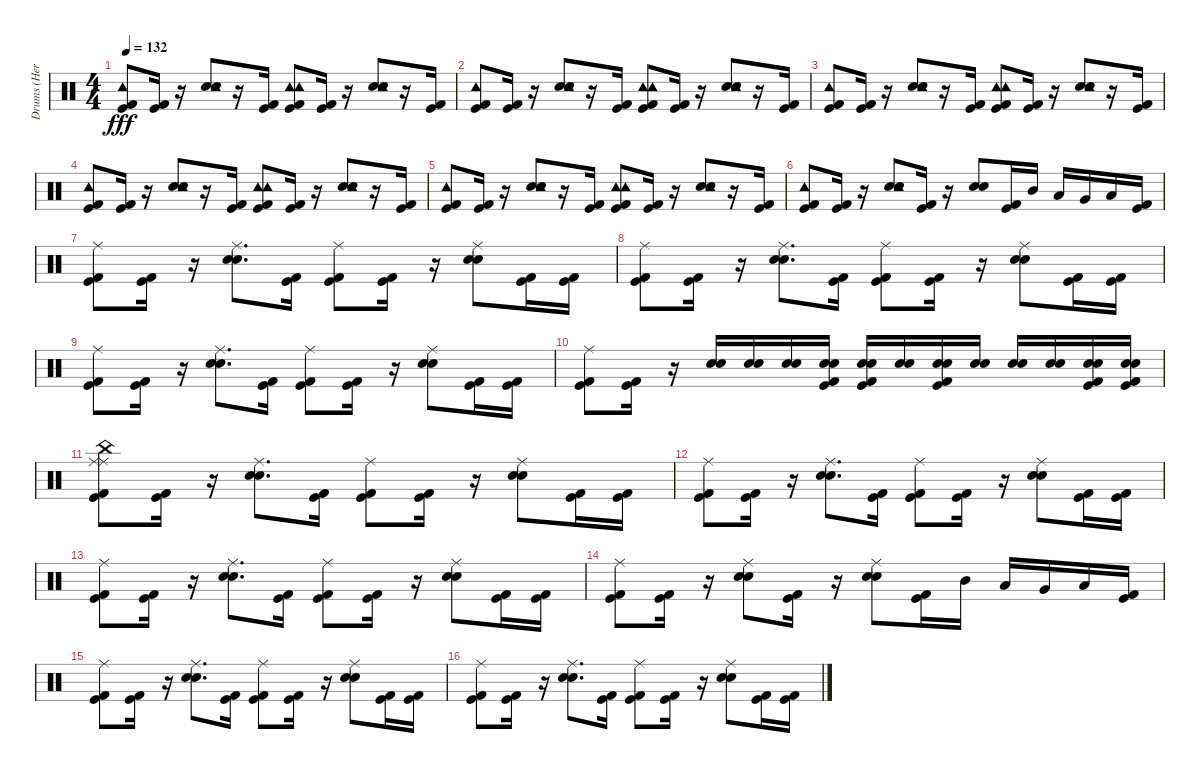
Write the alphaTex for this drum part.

\track ("Drums (Herb Alexander)" "Drums (Her") {instrument percussion}
\staff {score}
\articulation defaults
\ts (4 4)
\tempo 132
\clef neutral
\ks c
("Tambourine (hit)" "Kick (hit)" "Kick (hit) 2").8{dy fff} ("Kick (hit)" "Kick (hit) 2").16 r.16 ("Snare (hit) 2" "Hand Clap (hit)" "Tambourine (hit)").8 r.16 ("Kick (hit)" "Kick (hit) 2").16 ("Tambourine (hit)" "Kick (hit)" "Kick (hit) 2" "Tambourine (hit)").8 ("Kick (hit)" "Kick (hit) 2").16 r.16 ("Snare (hit) 2" "Hand Clap (hit)" "Tambourine (hit)").8 r.16 ("Kick (hit)" "Kick (hit) 2").16 |
("Tambourine (hit)" "Kick (hit)" "Kick (hit) 2").8 ("Kick (hit)" "Kick (hit) 2").16 r.16 ("Snare (hit) 2" "Hand Clap (hit)" "Tambourine (hit)").8 r.16 ("Kick (hit)" "Kick (hit) 2").16 ("Tambourine (hit)" "Kick (hit)" "Kick (hit) 2" "Tambourine (hit)").8 ("Kick (hit)" "Kick (hit) 2").16 r.16 ("Snare (hit) 2" "Hand Clap (hit)" "Tambourine (hit)").8 r.16 ("Kick (hit)" "Kick (hit) 2").16 |
("Tambourine (hit)" "Kick (hit)" "Kick (hit) 2").8 ("Kick (hit)" "Kick (hit) 2").16 r.16 ("Snare (hit) 2" "Hand Clap (hit)" "Tambourine (hit)").8 r.16 ("Kick (hit)" "Kick (hit) 2").16 ("Tambourine (hit)" "Kick (hit)" "Kick (hit) 2" "Tambourine (hit)").8 ("Kick (hit)" "Kick (hit) 2").16 r.16 ("Snare (hit) 2" "Hand Clap (hit)" "Tambourine (hit)").8 r.16 ("Kick (hit)" "Kick (hit) 2").16 |
("Tambourine (hit)" "Kick (hit)" "Kick (hit) 2").8 ("Kick (hit)" "Kick (hit) 2").16 r.16 ("Snare (hit) 2" "Hand Clap (hit)" "Tambourine (hit)").8 r.16 ("Kick (hit)" "Kick (hit) 2").16 ("Tambourine (hit)" "Kick (hit)" "Kick (hit) 2" "Tambourine (hit)").8 ("Kick (hit)" "Kick (hit) 2").16 r.16 ("Snare (hit) 2" "Hand Clap (hit)" "Tambourine (hit)").8 r.16 ("Kick (hit)" "Kick (hit) 2").16 |
("Tambourine (hit)" "Kick (hit)" "Kick (hit) 2").8 ("Kick (hit)" "Kick (hit) 2").16 r.16 ("Snare (hit) 2" "Hand Clap (hit)" "Tambourine (hit)").8 r.16 ("Kick (hit)" "Kick (hit) 2").16 ("Tambourine (hit)" "Kick (hit)" "Kick (hit) 2" "Tambourine (hit)").8 ("Kick (hit)" "Kick (hit) 2").16 r.16 ("Snare (hit) 2" "Hand Clap (hit)" "Tambourine (hit)").8 r.16 ("Kick (hit)" "Kick (hit) 2").16 |
("Tambourine (hit)" "Kick (hit)" "Kick (hit) 2").8 ("Kick (hit)" "Kick (hit) 2").16 r.16 ("Snare (hit) 2" "Hand Clap (hit)" "Tambourine (hit)").8 ("Kick (hit)" "Kick (hit) 2").16 r.16 ("Snare (hit) 2" "Hand Clap (hit)").8 ("Kick (hit)" "Kick (hit) 2").16 "Mid Tom (hit)".16 "Low Tom (hit)".16 "Very Low Tom (hit)".16 "Low Floor Tom (hit)".16 ("Kick (hit) 2" "Kick (hit)").16 |
("Ride (middle)" "Kick (hit)" "Kick (hit) 2").8 ("Kick (hit)" "Kick (hit) 2").16 r.16 ("Ride (middle)" "Snare (hit) 2" "Hand Clap (hit)").8{d} ("Kick (hit)" "Kick (hit) 2").16 ("Ride (middle)" "Kick (hit)" "Kick (hit) 2").8 ("Kick (hit)" "Kick (hit) 2").16 r.16 ("Ride (middle)" "Snare (hit) 2" "Hand Clap (hit)").8 ("Kick (hit)" "Kick (hit) 2").16 ("Kick (hit)" "Kick (hit) 2").16 |
("Ride (middle)" "Kick (hit)" "Kick (hit) 2").8 ("Kick (hit)" "Kick (hit) 2").16 r.16 ("Ride (middle)" "Snare (hit) 2" "Hand Clap (hit)").8{d} ("Kick (hit)" "Kick (hit) 2").16 ("Ride (middle)" "Kick (hit)" "Kick (hit) 2").8 ("Kick (hit)" "Kick (hit) 2").16 r.16 ("Ride (middle)" "Snare (hit) 2" "Hand Clap (hit)").8 ("Kick (hit)" "Kick (hit) 2").16 ("Kick (hit)" "Kick (hit) 2").16 |
("Ride (middle)" "Kick (hit)" "Kick (hit) 2").8 ("Kick (hit)" "Kick (hit) 2").16 r.16 ("Ride (middle)" "Snare (hit) 2" "Hand Clap (hit)").8{d} ("Kick (hit)" "Kick (hit) 2").16 ("Ride (middle)" "Kick (hit)" "Kick (hit) 2").8 ("Kick (hit)" "Kick (hit) 2").16 r.16 ("Ride (middle)" "Snare (hit) 2" "Hand Clap (hit)").8 ("Kick (hit)" "Kick (hit) 2").16 ("Kick (hit)" "Kick (hit) 2").16 |
("Ride (middle)" "Kick (hit)" "Kick (hit) 2").8 ("Kick (hit)" "Kick (hit) 2").16 r.16 ("Hand Clap (hit)" "Snare (hit) 2").16 ("Hand Clap (hit)" "Snare (hit) 2").16 ("Hand Clap (hit)" "Snare (hit) 2").16 ("Hand Clap (hit)" "Snare (hit) 2" "Kick (hit)" "Kick (hit) 2").16 ("Hand Clap (hit)" "Snare (hit) 2" "Kick (hit)" "Kick (hit) 2").16 ("Hand Clap (hit)" "Snare (hit) 2").16 ("Hand Clap (hit)" "Snare (hit) 2" "Kick (hit)" "Kick (hit) 2").16 ("Hand Clap (hit)" "Snare (hit) 2").16 ("Hand Clap (hit)" "Snare (hit) 2").16 ("Hand Clap (hit)" "Snare (hit) 2").16 ("Hand Clap (hit)" "Snare (hit) 2" "Kick (hit)" "Kick (hit) 2").16 ("Hand Clap (hit)" "Snare (hit) 2" "Kick (hit)" "Kick (hit) 2").16 |
("Ride (middle)" "China (hit)" "Ride (middle)" "Kick (hit)" "Kick (hit) 2").8 ("Kick (hit)" "Kick (hit) 2").16 r.16 ("Ride (middle)" "Snare (hit) 2" "Hand Clap (hit)").8{d} ("Kick (hit)" "Kick (hit) 2").16 ("Ride (middle)" "Kick (hit)" "Kick (hit) 2").8 ("Kick (hit)" "Kick (hit) 2").16 r.16 ("Ride (middle)" "Snare (hit) 2" "Hand Clap (hit)").8 ("Kick (hit)" "Kick (hit) 2").16 ("Kick (hit)" "Kick (hit) 2").16 |
("Ride (middle)" "Kick (hit)" "Kick (hit) 2").8 ("Kick (hit)" "Kick (hit) 2").16 r.16 ("Ride (middle)" "Snare (hit) 2" "Hand Clap (hit)").8{d} ("Kick (hit)" "Kick (hit) 2").16 ("Ride (middle)" "Kick (hit)" "Kick (hit) 2").8 ("Kick (hit)" "Kick (hit) 2").16 r.16 ("Ride (middle)" "Snare (hit) 2" "Hand Clap (hit)").8 ("Kick (hit)" "Kick (hit) 2").16 ("Kick (hit)" "Kick (hit) 2").16 |
("Ride (middle)" "Kick (hit)" "Kick (hit) 2").8 ("Kick (hit)" "Kick (hit) 2").16 r.16 ("Ride (middle)" "Snare (hit) 2" "Hand Clap (hit)").8{d} ("Kick (hit)" "Kick (hit) 2").16 ("Ride (middle)" "Kick (hit)" "Kick (hit) 2").8 ("Kick (hit)" "Kick (hit) 2").16 r.16 ("Ride (middle)" "Snare (hit) 2" "Hand Clap (hit)").8 ("Kick (hit)" "Kick (hit) 2").16 ("Kick (hit)" "Kick (hit) 2").16 |
("Kick (hit)" "Kick (hit) 2" "Ride (middle)").8 ("Kick (hit)" "Kick (hit) 2").16 r.16 ("Snare (hit) 2" "Hand Clap (hit)" "Ride (middle)").8 ("Kick (hit)" "Kick (hit) 2").16 r.16 ("Snare (hit) 2" "Hand Clap (hit)" "Ride (middle)").8 ("Kick (hit)" "Kick (hit) 2").16 "Mid Tom (hit)".16 "Low Tom (hit)".16 "Very Low Tom (hit)".16 "Low Floor Tom (hit)".16 ("Kick (hit) 2" "Kick (hit)").16 |
("Ride (middle)" "Kick (hit)" "Kick (hit) 2").8 ("Kick (hit)" "Kick (hit) 2").16 r.16 ("Ride (middle)" "Snare (hit) 2" "Hand Clap (hit)").8{d} ("Kick (hit)" "Kick (hit) 2").16 ("Ride (middle)" "Kick (hit)" "Kick (hit) 2").8 ("Kick (hit)" "Kick (hit) 2").16 r.16 ("Ride (middle)" "Snare (hit) 2" "Hand Clap (hit)").8 ("Kick (hit)" "Kick (hit) 2").16 ("Kick (hit)" "Kick (hit) 2").16 |
("Ride (middle)" "Kick (hit)" "Kick (hit) 2").8 ("Kick (hit)" "Kick (hit) 2").16 r.16 ("Ride (middle)" "Snare (hit) 2" "Hand Clap (hit)").8{d} ("Kick (hit)" "Kick (hit) 2").16 ("Ride (middle)" "Kick (hit)" "Kick (hit) 2").8 ("Kick (hit)" "Kick (hit) 2").16 r.16 ("Ride (middle)" "Snare (hit) 2" "Hand Clap (hit)").8 ("Kick (hit)" "Kick (hit) 2").16 ("Kick (hit)" "Kick (hit) 2").16
